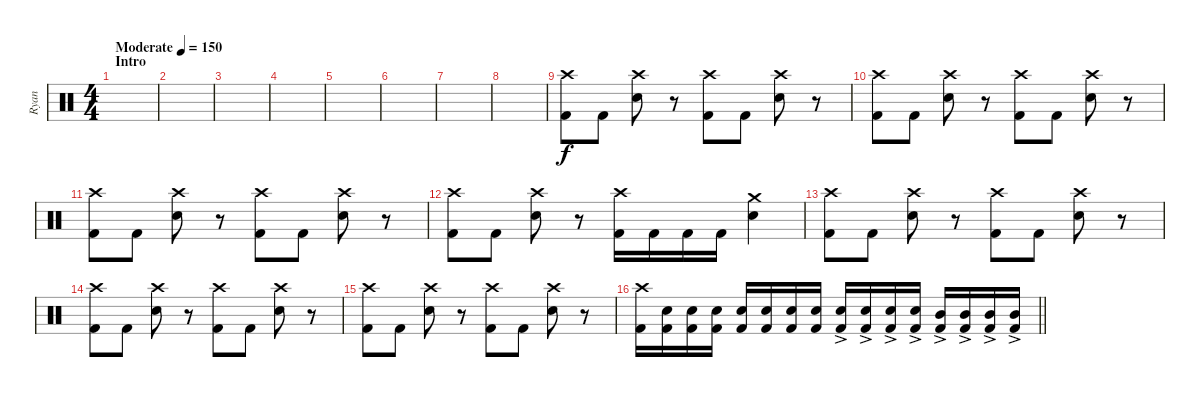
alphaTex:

\track ("Ryan" "Ryan") {instrument percussion}
\staff {score}
\articulation defaults
\ts (4 4)
\section ("" "Intro")
\tempo (150 "Moderate")
\clef neutral
\ks c
|
|
|
|
|
|
|
|
("Crash high (hit)" "Kick (hit) 2").8 "Kick (hit) 2".8 ("Crash high (hit)" "Electric Snare (hit)").8 r.8 ("Crash high (hit)" "Kick (hit) 2").8 "Kick (hit) 2".8 ("Crash high (hit)" "Electric Snare (hit)").8 r.8 |
("Crash high (hit)" "Kick (hit) 2").8 "Kick (hit) 2".8 ("Crash high (hit)" "Electric Snare (hit)").8 r.8 ("Crash high (hit)" "Kick (hit) 2").8 "Kick (hit) 2".8 ("Crash high (hit)" "Electric Snare (hit)").8 r.8 |
("Crash high (hit)" "Kick (hit) 2").8 "Kick (hit) 2".8 ("Crash high (hit)" "Electric Snare (hit)").8 r.8 ("Crash high (hit)" "Kick (hit) 2").8 "Kick (hit) 2".8 ("Crash high (hit)" "Electric Snare (hit)").8 r.8 |
("Crash high (hit)" "Kick (hit) 2").8 "Kick (hit) 2".8 ("Crash high (hit)" "Electric Snare (hit)").8 r.8 ("Crash high (hit)" "Kick (hit) 2").16 "Kick (hit) 2".16 "Kick (hit) 2".16 "Kick (hit) 2".16 ("Crash medium (hit)" "Electric Snare (hit)").4 |
("Crash high (hit)" "Kick (hit) 2").8 "Kick (hit) 2".8 ("Crash high (hit)" "Electric Snare (hit)").8 r.8 ("Crash high (hit)" "Kick (hit) 2").8 "Kick (hit) 2".8 ("Crash high (hit)" "Electric Snare (hit)").8 r.8 |
("Crash high (hit)" "Kick (hit) 2").8 "Kick (hit) 2".8 ("Crash high (hit)" "Electric Snare (hit)").8 r.8 ("Crash high (hit)" "Kick (hit) 2").8 "Kick (hit) 2".8 ("Crash high (hit)" "Electric Snare (hit)").8 r.8 |
("Crash high (hit)" "Kick (hit) 2").8 "Kick (hit) 2".8 ("Crash high (hit)" "Electric Snare (hit)").8 r.8 ("Crash high (hit)" "Kick (hit) 2").8 "Kick (hit) 2".8 ("Crash high (hit)" "Electric Snare (hit)").8 r.8 |
\barLineRight lightlight
("Crash high (hit)" "Kick (hit) 2").16 ("Electric Snare (hit)" "Kick (hit) 2").16 ("Electric Snare (hit)" "Kick (hit) 2").16 ("Electric Snare (hit)" "Kick (hit) 2").16 ("Electric Snare (hit)" "Kick (hit) 2").16 ("Electric Snare (hit)" "Kick (hit) 2").16 ("Electric Snare (hit)" "Kick (hit) 2").16 ("Electric Snare (hit)" "Kick (hit) 2").16 ("Electric Snare (hit)"{ac} "Kick (hit) 2").16 ("Electric Snare (hit)"{ac} "Kick (hit) 2").16 ("Electric Snare (hit)"{ac} "Kick (hit) 2").16 ("Electric Snare (hit)"{ac} "Kick (hit) 2").16 ("Mid Tom (hit)"{ac} "Kick (hit) 2").16 ("Mid Tom (hit)"{ac} "Kick (hit) 2").16 ("Mid Tom (hit)"{ac} "Kick (hit) 2").16 ("Mid Tom (hit)"{ac} "Kick (hit) 2").16
